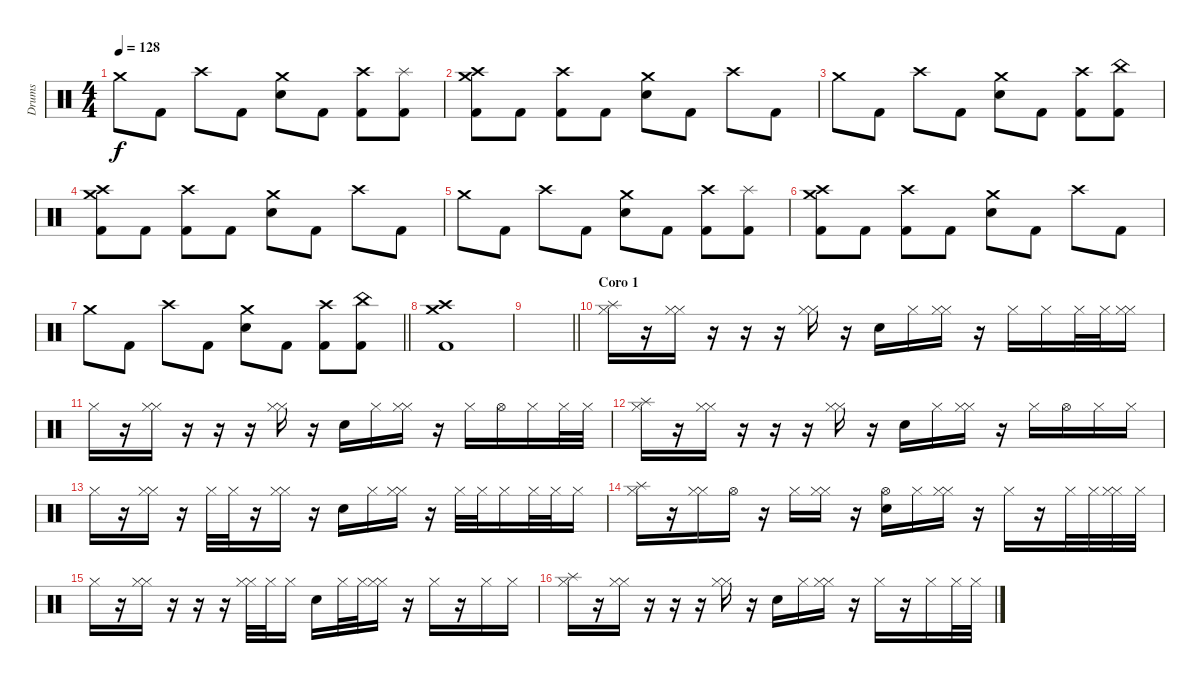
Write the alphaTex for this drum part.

\track ("Drums" "Drums") {instrument percussion}
\staff {score}
\articulation defaults
\ts (4 4)
\tempo 128
\clef neutral
\ks c "Crash medium (hit)".8{dy f} "Kick (hit) 2".8 "Crash high (hit)".8 "Kick (hit) 2".8
("Crash medium (hit)" "Electric Snare (hit)").8 "Kick (hit) 2".8 ("Crash high (hit)" "Kick (hit) 2").8 ("Splash (hit)" "Kick (hit) 2").8 |
("Crash medium (hit)" "Crash high (hit)" "Kick (hit) 2").8 "Kick (hit) 2".8 ("Crash high (hit)" "Kick (hit) 2").8 "Kick (hit) 2".8 ("Crash medium (hit)" "Electric Snare (hit)").8 "Kick (hit) 2".8 "Crash high (hit)".8 "Kick (hit) 2".8 |
"Crash medium (hit)".8 "Kick (hit) 2".8 "Crash high (hit)".8 "Kick (hit) 2".8 ("Crash medium (hit)" "Electric Snare (hit)").8 "Kick (hit) 2".8 ("Crash high (hit)" "Kick (hit) 2").8 ("China (hit)" "Kick (hit) 2").8 |
("Crash medium (hit)" "Crash high (hit)" "Kick (hit) 2").8 "Kick (hit) 2".8 ("Crash high (hit)" "Kick (hit) 2").8 "Kick (hit) 2".8 ("Crash medium (hit)" "Electric Snare (hit)").8 "Kick (hit) 2".8 "Crash high (hit)".8 "Kick (hit) 2".8 |
"Crash medium (hit)".8 "Kick (hit) 2".8 "Crash high (hit)".8 "Kick (hit) 2".8 ("Crash medium (hit)" "Electric Snare (hit)").8 "Kick (hit) 2".8 ("Crash high (hit)" "Kick (hit) 2").8 ("Splash (hit)" "Kick (hit) 2").8 |
("Crash medium (hit)" "Crash high (hit)" "Kick (hit) 2").8 "Kick (hit) 2".8 ("Crash high (hit)" "Kick (hit) 2").8 "Kick (hit) 2".8 ("Crash medium (hit)" "Electric Snare (hit)").8 "Kick (hit) 2".8 "Crash high (hit)".8 "Kick (hit) 2".8 |
\barLineRight lightlight "Crash medium (hit)".8 "Kick (hit) 2".8 "Crash high (hit)".8 "Kick (hit) 2".8
("Crash medium (hit)" "Electric Snare (hit)").8 "Kick (hit) 2".8 ("Crash high (hit)" "Kick (hit) 2").8 ("China (hit)" "Kick (hit) 2").8 |
\section ("" "")
("Crash medium (hit)" "Crash high (hit)" "Kick (hit) 2").1 |
\barLineRight lightlight
|
\section ("" "Coro 1")
("Splash (hit)" "Hi-Hat (closed)").16 r.16 ("Hi-Hat (closed)" "Hi-Hat (closed)").16 r.16 r.16 r.16 ("Hi-Hat (closed)" "Hi-Hat (closed)").16 r.16 "Electric Snare (hit)".16 "Hi-Hat (closed)".16 ("Hi-Hat (closed)" "Hi-Hat (closed)").16 r.16 "Hi-Hat (closed)".16 "Hi-Hat (closed)".16 "Hi-Hat (closed)".32 "Hi-Hat (closed)".32 ("Hi-Hat (closed)" "Hi-Hat (closed)").16 |
"Hi-Hat (closed)".16 r.16 ("Hi-Hat (closed)" "Hi-Hat (closed)").16 r.16 r.16 r.16 ("Hi-Hat (closed)" "Hi-Hat (closed)").16 r.16 "Electric Snare (hit)".16 "Hi-Hat (closed)".16 ("Hi-Hat (closed)" "Hi-Hat (closed)").16 r.16 "Hi-Hat (closed)".16 "Hi-Hat (open)".16 "Hi-Hat (closed)".16 "Hi-Hat (closed)".32 "Hi-Hat (closed)".32 |
("Splash (hit)" "Hi-Hat (closed)").16 r.16 ("Hi-Hat (closed)" "Hi-Hat (closed)").16 r.16 r.16 r.16 ("Hi-Hat (closed)" "Hi-Hat (closed)").16 r.16 "Electric Snare (hit)".16 "Hi-Hat (closed)".16 ("Hi-Hat (closed)" "Hi-Hat (closed)").16 r.16 "Hi-Hat (closed)".16 "Hi-Hat (open)".16 "Hi-Hat (closed)".16 "Hi-Hat (closed)".16 |
"Hi-Hat (closed)".16 r.16 ("Hi-Hat (closed)" "Hi-Hat (closed)").16 r.16 "Hi-Hat (closed)".32 "Hi-Hat (closed)".32 r.16 ("Hi-Hat (closed)" "Hi-Hat (closed)").16 r.16 "Electric Snare (hit)".16 "Hi-Hat (closed)".16 ("Hi-Hat (closed)" "Hi-Hat (closed)").16 r.16 "Hi-Hat (closed)".32 "Hi-Hat (closed)".32 "Hi-Hat (closed)".16 "Hi-Hat (closed)".32 "Hi-Hat (closed)".32 "Hi-Hat (closed)".16 |
("Splash (hit)" "Hi-Hat (closed)").16 r.16 ("Hi-Hat (closed)" "Hi-Hat (closed)").16 "Hi-Hat (open)".16 r.16 "Hi-Hat (closed)".16 ("Hi-Hat (closed)" "Hi-Hat (closed)").16 r.16 ("Hi-Hat (open)" "Electric Snare (hit)").16 "Hi-Hat (closed)".16 ("Hi-Hat (closed)" "Hi-Hat (closed)").16 r.16 "Hi-Hat (closed)".16 r.16 "Hi-Hat (closed)".32 "Hi-Hat (closed)".32 ("Hi-Hat (closed)" "Hi-Hat (closed)").32 "Hi-Hat (closed)".32 |
"Hi-Hat (closed)".16 r.16 ("Hi-Hat (closed)" "Hi-Hat (closed)").16 r.16 r.16 r.16 ("Hi-Hat (closed)" "Hi-Hat (closed)").32 "Hi-Hat (closed)".32 "Hi-Hat (closed)".16 "Electric Snare (hit)".16 "Hi-Hat (closed)".32 "Hi-Hat (closed)".32 ("Hi-Hat (closed)" "Hi-Hat (closed)").16 r.16 "Hi-Hat (closed)".16 r.16 "Hi-Hat (closed)".16 "Hi-Hat (closed)".16 |
("Splash (hit)" "Hi-Hat (closed)").16 r.16 ("Hi-Hat (closed)" "Hi-Hat (closed)").16 r.16 r.16 r.16 ("Hi-Hat (closed)" "Hi-Hat (closed)").16 r.16 "Electric Snare (hit)".16 "Hi-Hat (closed)".16 ("Hi-Hat (closed)" "Hi-Hat (closed)").16 r.16 "Hi-Hat (closed)".16 r.16 "Hi-Hat (closed)".16 "Hi-Hat (closed)".32 "Hi-Hat (closed)".32
